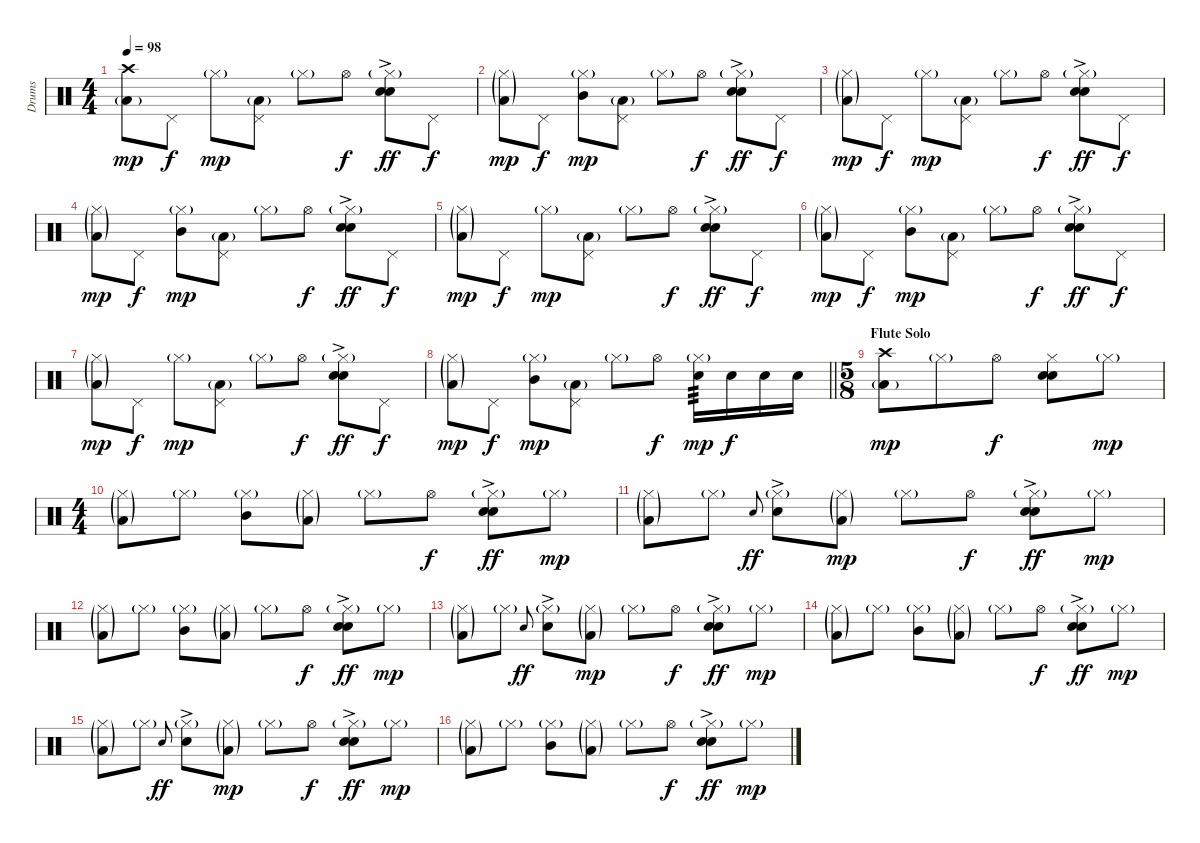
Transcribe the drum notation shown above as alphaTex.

\track ("Drums" "Drums") {instrument percussion}
\staff {score}
\articulation defaults
\ts (4 4)
\tempo 98
\clef neutral
\ks c
("Crash high (hit)" "Low Tom (hit)"{g}).8{dy mp} "Pedal Hi-Hat (hit)".8{dy f} "Hi-Hat (closed)"{g}.8{dy mp} ("Pedal Hi-Hat (hit)" "Low Tom (hit)"{g}).8 "Hi-Hat (closed)"{g}.8 "Hi-Hat (open)".8{dy f} ("Hi-Hat (closed)"{g} "Snare (hit) 2"{ac} "Snare (hit) 2"{ac}).8{dy ff} "Pedal Hi-Hat (hit)".8{dy f} |
("Hi-Hat (closed)"{g} "Low Tom (hit)"{g}).8{dy mp} "Pedal Hi-Hat (hit)".8{dy f} ("Hi-Hat (closed)"{g} "Mid Tom (hit)").8{dy mp} ("Pedal Hi-Hat (hit)" "Low Tom (hit)"{g}).8 "Hi-Hat (closed)"{g}.8 "Hi-Hat (open)".8{dy f} ("Hi-Hat (closed)"{g} "Snare (hit) 2"{ac} "Snare (hit) 2"{ac}).8{dy ff} "Pedal Hi-Hat (hit)".8{dy f} |
("Hi-Hat (closed)"{g} "Low Tom (hit)"{g}).8{dy mp} "Pedal Hi-Hat (hit)".8{dy f} "Hi-Hat (closed)"{g}.8{dy mp} ("Pedal Hi-Hat (hit)" "Low Tom (hit)"{g}).8 "Hi-Hat (closed)"{g}.8 "Hi-Hat (open)".8{dy f} ("Hi-Hat (closed)"{g} "Snare (hit) 2"{ac} "Snare (hit) 2"{ac}).8{dy ff} "Pedal Hi-Hat (hit)".8{dy f} |
("Hi-Hat (closed)"{g} "Low Tom (hit)"{g}).8{dy mp} "Pedal Hi-Hat (hit)".8{dy f} ("Hi-Hat (closed)"{g} "Mid Tom (hit)").8{dy mp} ("Pedal Hi-Hat (hit)" "Low Tom (hit)"{g}).8 "Hi-Hat (closed)"{g}.8 "Hi-Hat (open)".8{dy f} ("Hi-Hat (closed)"{g} "Snare (hit) 2"{ac} "Snare (hit) 2"{ac}).8{dy ff} "Pedal Hi-Hat (hit)".8{dy f} |
("Hi-Hat (closed)"{g} "Low Tom (hit)"{g}).8{dy mp} "Pedal Hi-Hat (hit)".8{dy f} "Hi-Hat (closed)"{g}.8{dy mp} ("Pedal Hi-Hat (hit)" "Low Tom (hit)"{g}).8 "Hi-Hat (closed)"{g}.8 "Hi-Hat (open)".8{dy f} ("Hi-Hat (closed)"{g} "Snare (hit) 2"{ac} "Snare (hit) 2"{ac}).8{dy ff} "Pedal Hi-Hat (hit)".8{dy f} |
("Hi-Hat (closed)"{g} "Low Tom (hit)"{g}).8{dy mp} "Pedal Hi-Hat (hit)".8{dy f} ("Hi-Hat (closed)"{g} "Mid Tom (hit)").8{dy mp} ("Pedal Hi-Hat (hit)" "Low Tom (hit)"{g}).8 "Hi-Hat (closed)"{g}.8 "Hi-Hat (open)".8{dy f} ("Hi-Hat (closed)"{g} "Snare (hit) 2"{ac} "Snare (hit) 2"{ac}).8{dy ff} "Pedal Hi-Hat (hit)".8{dy f} |
("Hi-Hat (closed)"{g} "Low Tom (hit)"{g}).8{dy mp} "Pedal Hi-Hat (hit)".8{dy f} "Hi-Hat (closed)"{g}.8{dy mp} ("Pedal Hi-Hat (hit)" "Low Tom (hit)"{g}).8 "Hi-Hat (closed)"{g}.8 "Hi-Hat (open)".8{dy f} ("Hi-Hat (closed)"{g} "Snare (hit) 2"{ac} "Snare (hit) 2"{ac}).8{dy ff} "Pedal Hi-Hat (hit)".8{dy f} |
\barLineRight lightlight
("Hi-Hat (closed)"{g} "Low Tom (hit)"{g}).8{dy mp} "Pedal Hi-Hat (hit)".8{dy f} ("Hi-Hat (closed)"{g} "Mid Tom (hit)").8{dy mp} ("Pedal Hi-Hat (hit)" "Low Tom (hit)"{g}).8 "Hi-Hat (closed)"{g}.8 "Hi-Hat (open)".8{dy f} ("Hi-Hat (closed)"{g} "Snare (hit) 2").16{tp 3 dy mp} "Snare (hit) 2".16{dy f} "Snare (hit) 2".16 "Snare (hit) 2".16 |
\ts (5 8)
\section ("" "Flute Solo")
("Crash high (hit)" "Low Tom (hit)"{g}).8{dy mp} "Hi-Hat (closed)"{g}.8 "Hi-Hat (open)".8{dy f} ("Hi-Hat (closed)" "Snare (hit) 2" "Snare (hit) 2").8 "Hi-Hat (closed)"{g}.8{dy mp} |
\ts (4 4)
("Hi-Hat (closed)"{g} "Low Tom (hit)"{g}).8 "Hi-Hat (closed)"{g}.8 ("Hi-Hat (closed)"{g} "Mid Tom (hit)").8 ("Hi-Hat (closed)"{g} "Low Tom (hit)"{g}).8 "Hi-Hat (closed)"{g}.8 "Hi-Hat (open)".8{dy f} ("Hi-Hat (closed)"{g} "Snare (hit) 2"{ac} "Snare (hit) 2"{ac}).8{dy ff} "Hi-Hat (closed)"{g}.8{dy mp} |
("Hi-Hat (closed)"{g} "Low Tom (hit)"{g}).8 "Hi-Hat (closed)"{g}.8 "Snare (hit) 2".8{gr onbeat dy ff} ("Hi-Hat (closed)"{g} "Snare (hit) 2"{ac}).8 ("Hi-Hat (closed)"{g} "Low Tom (hit)"{g}).8{dy mp} "Hi-Hat (closed)"{g}.8 "Hi-Hat (open)".8{dy f} ("Hi-Hat (closed)"{g} "Snare (hit) 2"{ac} "Snare (hit) 2"{ac}).8{dy ff} "Hi-Hat (closed)"{g}.8{dy mp} |
("Hi-Hat (closed)"{g} "Low Tom (hit)"{g}).8 "Hi-Hat (closed)"{g}.8 ("Hi-Hat (closed)"{g} "Mid Tom (hit)").8 ("Hi-Hat (closed)"{g} "Low Tom (hit)"{g}).8 "Hi-Hat (closed)"{g}.8 "Hi-Hat (open)".8{dy f} ("Hi-Hat (closed)"{g} "Snare (hit) 2"{ac} "Snare (hit) 2"{ac}).8{dy ff} "Hi-Hat (closed)"{g}.8{dy mp} |
("Hi-Hat (closed)"{g} "Low Tom (hit)"{g}).8 "Hi-Hat (closed)"{g}.8 "Snare (hit) 2".8{gr onbeat dy ff} ("Hi-Hat (closed)"{g} "Snare (hit) 2"{ac}).8 ("Hi-Hat (closed)"{g} "Low Tom (hit)"{g}).8{dy mp} "Hi-Hat (closed)"{g}.8 "Hi-Hat (open)".8{dy f} ("Hi-Hat (closed)"{g} "Snare (hit) 2"{ac} "Snare (hit) 2"{ac}).8{dy ff} "Hi-Hat (closed)"{g}.8{dy mp} |
("Hi-Hat (closed)"{g} "Low Tom (hit)"{g}).8 "Hi-Hat (closed)"{g}.8 ("Hi-Hat (closed)"{g} "Mid Tom (hit)").8 ("Hi-Hat (closed)"{g} "Low Tom (hit)"{g}).8 "Hi-Hat (closed)"{g}.8 "Hi-Hat (open)".8{dy f} ("Hi-Hat (closed)"{g} "Snare (hit) 2"{ac} "Snare (hit) 2"{ac}).8{dy ff} "Hi-Hat (closed)"{g}.8{dy mp} |
("Hi-Hat (closed)"{g} "Low Tom (hit)"{g}).8 "Hi-Hat (closed)"{g}.8 "Snare (hit) 2".8{gr onbeat dy ff} ("Hi-Hat (closed)"{g} "Snare (hit) 2"{ac}).8 ("Hi-Hat (closed)"{g} "Low Tom (hit)"{g}).8{dy mp} "Hi-Hat (closed)"{g}.8 "Hi-Hat (open)".8{dy f} ("Hi-Hat (closed)"{g} "Snare (hit) 2"{ac} "Snare (hit) 2"{ac}).8{dy ff} "Hi-Hat (closed)"{g}.8{dy mp} |
("Hi-Hat (closed)"{g} "Low Tom (hit)"{g}).8 "Hi-Hat (closed)"{g}.8 ("Hi-Hat (closed)"{g} "Mid Tom (hit)").8 ("Hi-Hat (closed)"{g} "Low Tom (hit)"{g}).8 "Hi-Hat (closed)"{g}.8 "Hi-Hat (open)".8{dy f} ("Hi-Hat (closed)"{g} "Snare (hit) 2"{ac} "Snare (hit) 2"{ac}).8{dy ff} "Hi-Hat (closed)"{g}.8{dy mp}
